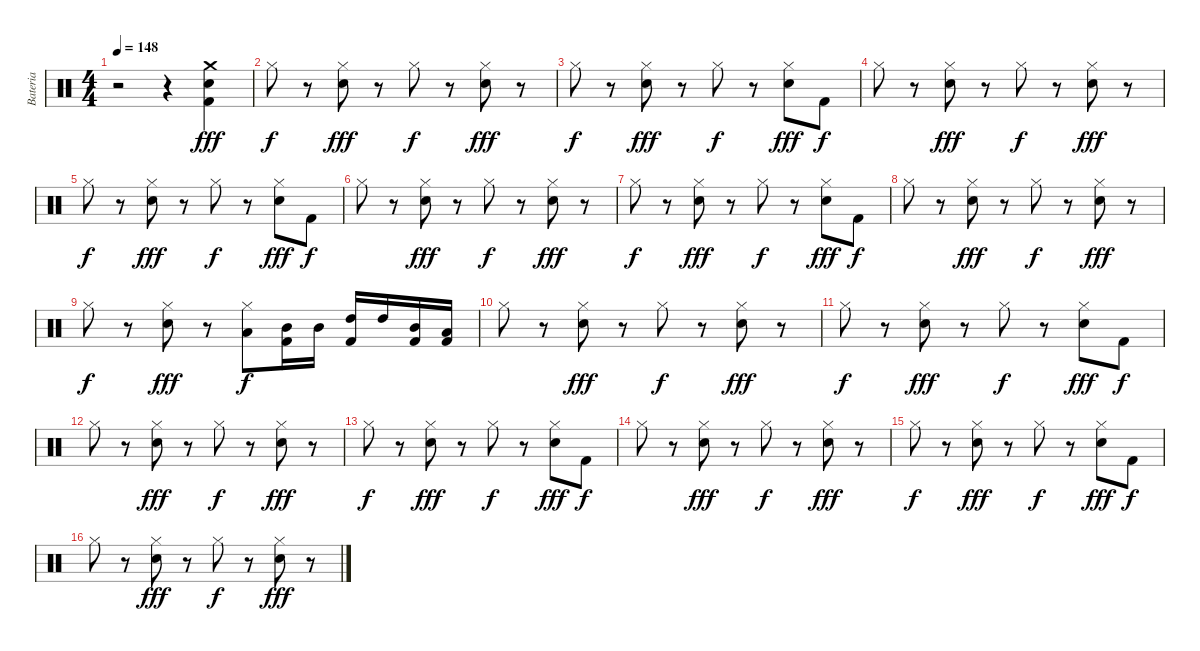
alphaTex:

\track ("Bateria" "Bateria") {instrument percussion}
\staff {score}
\articulation defaults
\ts (4 4)
\tempo 148
\clef neutral
\ks c
r.2{dy fff} r.4 ("Crash medium (hit)" "Electric Snare (hit)" "Kick (hit) 2").4 |
"Hi-Hat (closed)".8{dy f} r.8 ("Hi-Hat (closed)" "Electric Snare (hit)").8{dy fff} r.8 "Hi-Hat (closed)".8{dy f} r.8 ("Hi-Hat (closed)" "Electric Snare (hit)").8{dy fff} r.8 |
"Hi-Hat (closed)".8{dy f} r.8 ("Hi-Hat (closed)" "Electric Snare (hit)").8{dy fff} r.8 "Hi-Hat (closed)".8{dy f} r.8 ("Hi-Hat (closed)" "Electric Snare (hit)").8{dy fff} "Kick (hit) 2".8{dy f} |
"Hi-Hat (closed)".8 r.8 ("Hi-Hat (closed)" "Electric Snare (hit)").8{dy fff} r.8 "Hi-Hat (closed)".8{dy f} r.8 ("Hi-Hat (closed)" "Electric Snare (hit)").8{dy fff} r.8 |
"Hi-Hat (closed)".8{dy f} r.8 ("Hi-Hat (closed)" "Electric Snare (hit)").8{dy fff} r.8 "Hi-Hat (closed)".8{dy f} r.8 ("Hi-Hat (closed)" "Electric Snare (hit)").8{dy fff} "Kick (hit) 2".8{dy f} |
"Hi-Hat (closed)".8 r.8 ("Hi-Hat (closed)" "Electric Snare (hit)").8{dy fff} r.8 "Hi-Hat (closed)".8{dy f} r.8 ("Hi-Hat (closed)" "Electric Snare (hit)").8{dy fff} r.8 |
"Hi-Hat (closed)".8{dy f} r.8 ("Hi-Hat (closed)" "Electric Snare (hit)").8{dy fff} r.8 "Hi-Hat (closed)".8{dy f} r.8 ("Hi-Hat (closed)" "Electric Snare (hit)").8{dy fff} "Kick (hit) 2".8{dy f} |
"Hi-Hat (closed)".8 r.8 ("Hi-Hat (closed)" "Electric Snare (hit)").8{dy fff} r.8 "Hi-Hat (closed)".8{dy f} r.8 ("Hi-Hat (closed)" "Electric Snare (hit)").8{dy fff} r.8 |
"Hi-Hat (closed)".8{dy f} r.8 ("Hi-Hat (closed)" "Electric Snare (hit)").8{dy fff} r.8 ("Hi-Hat (closed)" "Low Tom (hit)").8{dy f} ("Mid Tom (hit)" "Kick (hit) 2").16 "Mid Tom (hit)".16 ("High Tom (hit)" "Kick (hit) 2").16 "High Tom (hit)".16 ("Mid Tom (hit)" "Kick (hit) 2").16 ("Low Tom (hit)" "Kick (hit) 2").16 |
"Hi-Hat (closed)".8 r.8 ("Hi-Hat (closed)" "Electric Snare (hit)").8{dy fff} r.8 "Hi-Hat (closed)".8{dy f} r.8 ("Hi-Hat (closed)" "Electric Snare (hit)").8{dy fff} r.8 |
"Hi-Hat (closed)".8{dy f} r.8 ("Hi-Hat (closed)" "Electric Snare (hit)").8{dy fff} r.8 "Hi-Hat (closed)".8{dy f} r.8 ("Hi-Hat (closed)" "Electric Snare (hit)").8{dy fff} "Kick (hit) 2".8{dy f} |
"Hi-Hat (closed)".8 r.8 ("Hi-Hat (closed)" "Electric Snare (hit)").8{dy fff} r.8 "Hi-Hat (closed)".8{dy f} r.8 ("Hi-Hat (closed)" "Electric Snare (hit)").8{dy fff} r.8 |
"Hi-Hat (closed)".8{dy f} r.8 ("Hi-Hat (closed)" "Electric Snare (hit)").8{dy fff} r.8 "Hi-Hat (closed)".8{dy f} r.8 ("Hi-Hat (closed)" "Electric Snare (hit)").8{dy fff} "Kick (hit) 2".8{dy f} |
"Hi-Hat (closed)".8 r.8 ("Hi-Hat (closed)" "Electric Snare (hit)").8{dy fff} r.8 "Hi-Hat (closed)".8{dy f} r.8 ("Hi-Hat (closed)" "Electric Snare (hit)").8{dy fff} r.8 |
"Hi-Hat (closed)".8{dy f} r.8 ("Hi-Hat (closed)" "Electric Snare (hit)").8{dy fff} r.8 "Hi-Hat (closed)".8{dy f} r.8 ("Hi-Hat (closed)" "Electric Snare (hit)").8{dy fff} "Kick (hit) 2".8{dy f} |
"Hi-Hat (closed)".8 r.8 ("Hi-Hat (closed)" "Electric Snare (hit)").8{dy fff} r.8 "Hi-Hat (closed)".8{dy f} r.8 ("Hi-Hat (closed)" "Electric Snare (hit)").8{dy fff} r.8
